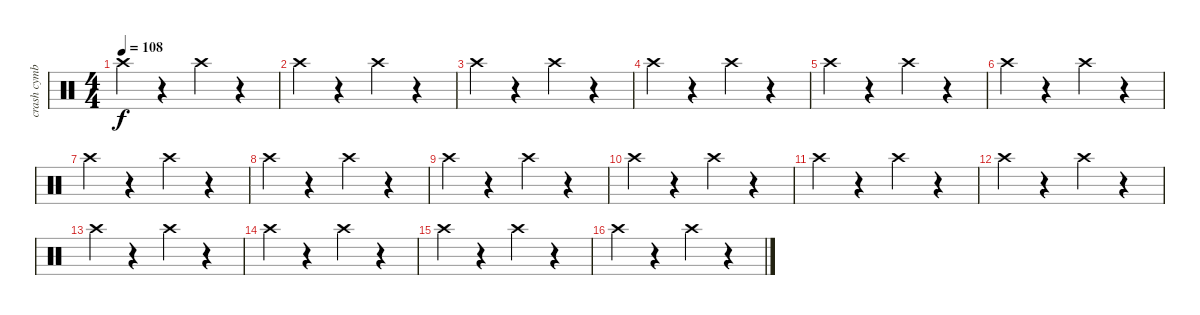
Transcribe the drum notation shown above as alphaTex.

\track ("crash cymbal        " "crash cymb") {instrument percussion}
\staff {score}
\articulation defaults
\ts (4 4)
\tempo 108
\clef neutral
\ks c "Crash high (hit)".4{dy f}
r.4 "Crash high (hit)".4 r.4 |
"Crash high (hit)".4 r.4 "Crash high (hit)".4 r.4 |
"Crash high (hit)".4 r.4 "Crash high (hit)".4 r.4 |
"Crash high (hit)".4 r.4 "Crash high (hit)".4 r.4 |
"Crash high (hit)".4 r.4 "Crash high (hit)".4 r.4 |
"Crash high (hit)".4 r.4 "Crash high (hit)".4 r.4 |
"Crash high (hit)".4 r.4 "Crash high (hit)".4 r.4 |
"Crash high (hit)".4 r.4 "Crash high (hit)".4 r.4 |
"Crash high (hit)".4 r.4 "Crash high (hit)".4 r.4 |
"Crash high (hit)".4 r.4 "Crash high (hit)".4 r.4 |
"Crash high (hit)".4 r.4 "Crash high (hit)".4 r.4 |
"Crash high (hit)".4 r.4 "Crash high (hit)".4 r.4 |
"Crash high (hit)".4 r.4 "Crash high (hit)".4 r.4 |
"Crash high (hit)".4 r.4 "Crash high (hit)".4 r.4 |
"Crash high (hit)".4 r.4 "Crash high (hit)".4 r.4 |
"Crash high (hit)".4 r.4 "Crash high (hit)".4 r.4
